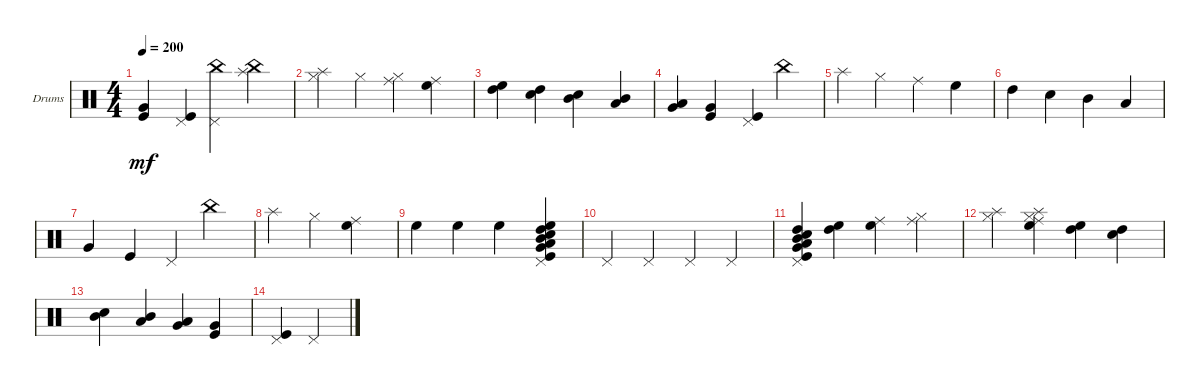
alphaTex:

\defaultSystemsLayout 4
\bracketExtendMode groupsimilarinstruments
\firstSystemTrackNameOrientation horizontal
\otherSystemsTrackNameOrientation horizontal
\track ("Drumkit" "Drums") {instrument percussion}
\staff {score}
\articulation defaults
\ts (4 4)
\tempo 200
\clef neutral
\ks c
("Very Low Tom (hit)" "Kick (hit)").4{dy mf} ("Kick (hit)" "Pedal Hi-Hat (hit)").4 ("Pedal Hi-Hat (hit)" "China (hit)").4 ("China (hit)" "Splash (hit)").4 |
("Splash (hit)" "Hi-Hat (closed)").4 "Hi-Hat (closed)".4 ("Hi-Hat (closed)" "Ride (middle)").4 ("Ride (middle)" "High Floor Tom (hit)").4 |
("High Floor Tom (hit)" "High Tom (hit)").4 ("High Tom (hit)" "Snare (hit) 2").4 ("Snare (hit) 2" "Mid Tom (hit)").4 ("Mid Tom (hit)" "Low Tom (hit)").4 |
("Low Tom (hit)" "Very Low Tom (hit)").4 ("Very Low Tom (hit)" "Kick (hit)").4 ("Kick (hit)" "Pedal Hi-Hat (hit)").4 "China (hit)".4 |
"Splash (hit)".4 "Hi-Hat (closed)".4 "Ride (middle)".4 "High Floor Tom (hit)".4 |
"High Tom (hit)".4 "Snare (hit) 2".4 "Mid Tom (hit)".4 "Low Tom (hit)".4 |
"Very Low Tom (hit)".4 "Kick (hit)".4 "Pedal Hi-Hat (hit)".4 "China (hit)".4 |
"Splash (hit)".4 "Hi-Hat (closed)".4 ("Ride (middle)" "High Floor Tom (hit)").4 |
"High Floor Tom (hit)".4 "High Floor Tom (hit)".4 "High Floor Tom (hit)".4 ("High Floor Tom (hit)" "High Tom (hit)" "Snare (hit) 2" "Mid Tom (hit)" "Low Tom (hit)" "Very Low Tom (hit)" "Kick (hit)" "Pedal Hi-Hat (hit)").4 |
"Pedal Hi-Hat (hit)".4 "Pedal Hi-Hat (hit)".4 "Pedal Hi-Hat (hit)".4 "Pedal Hi-Hat (hit)".4 |
("Pedal Hi-Hat (hit)" "Kick (hit)" "Very Low Tom (hit)" "Low Tom (hit)" "Mid Tom (hit)" "Snare (hit) 2" "High Tom (hit)").4 ("High Tom (hit)" "High Floor Tom (hit)").4 ("High Floor Tom (hit)" "Ride (middle)").4 ("Ride (middle)" "Hi-Hat (closed)").4 |
("Hi-Hat (closed)" "Splash (hit)").4 ("Splash (hit)" "Hi-Hat (closed)" "Ride (middle)" "High Floor Tom (hit)").4 ("High Floor Tom (hit)" "High Tom (hit)").4 ("High Tom (hit)" "Snare (hit) 2").4 |
("Snare (hit) 2" "Mid Tom (hit)").4 ("Mid Tom (hit)" "Low Tom (hit)").4 ("Low Tom (hit)" "Very Low Tom (hit)").4 ("Very Low Tom (hit)" "Kick (hit)").4 |
("Kick (hit)" "Pedal Hi-Hat (hit)").4 "Pedal Hi-Hat (hit)".4
